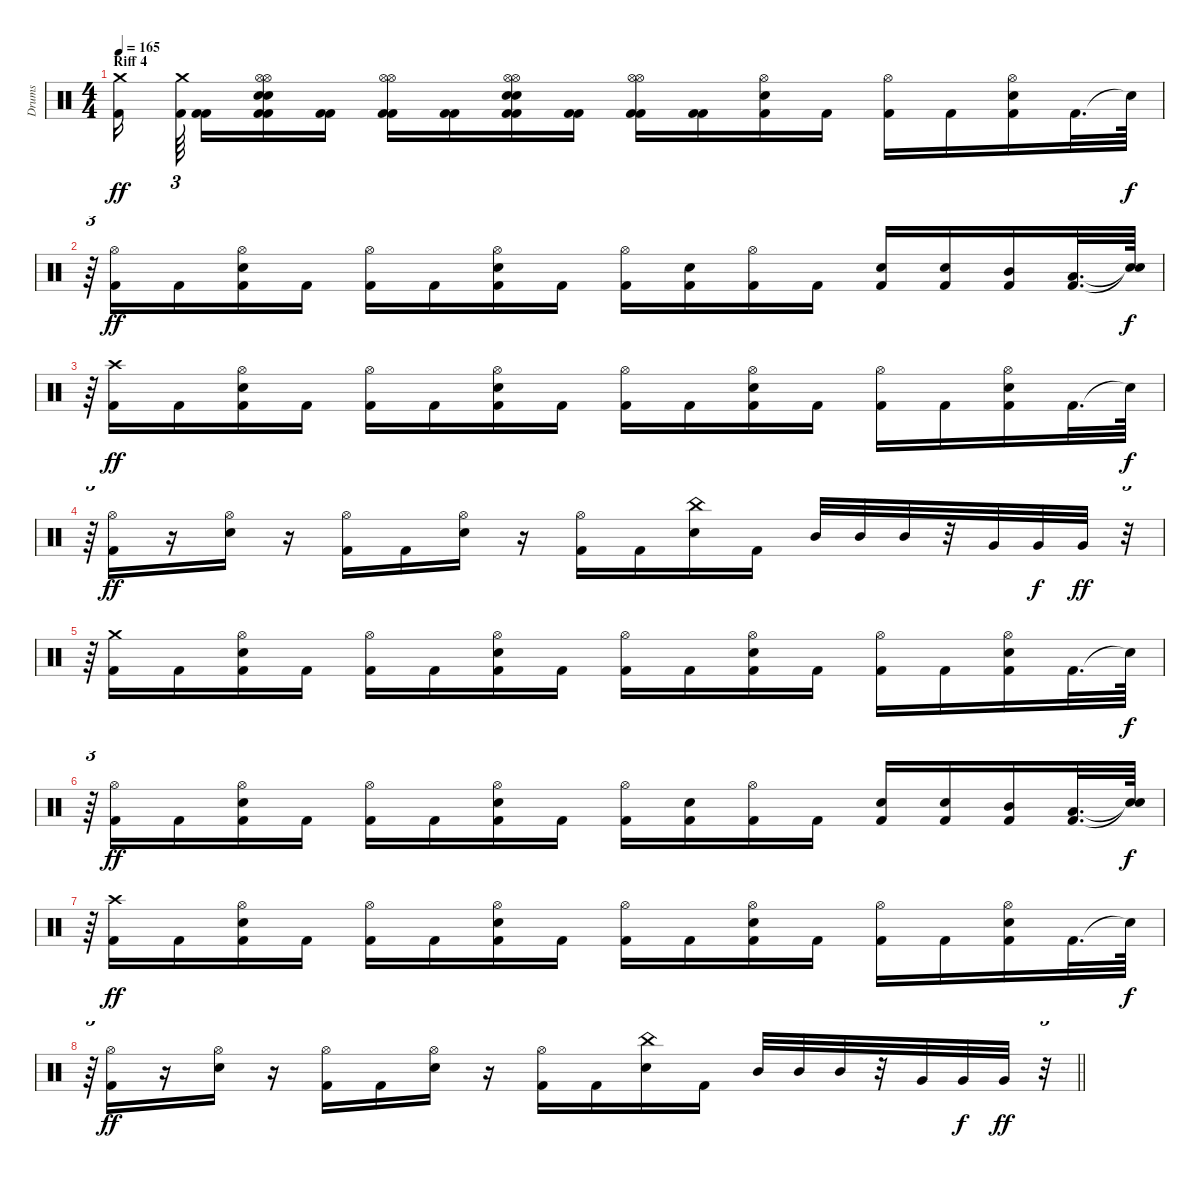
\track ("Drums" "Drums") {instrument percussion}
\staff {score}
\articulation defaults
\ts (4 4)
\section ("" "Riff 4")
\tempo 165
\clef neutral
\ks c
("Kick (hit) 2" "Crash medium (hit)").16{dy ff beam splitsecondary} ("Kick (hit) 2" "Crash medium (hit)").64{tu (3 2) beam splitsecondary} ("Kick (hit) 2" "Kick (hit) 2").16 ("Kick (hit) 2" "Kick (hit) 2" "Snare (hit) 2" "Snare (hit) 2" "Hi-Hat (open)" "Hi-Hat (open)").16 ("Kick (hit) 2" "Kick (hit) 2").16 ("Kick (hit) 2" "Kick (hit) 2" "Hi-Hat (open)" "Hi-Hat (open)").16 ("Kick (hit) 2" "Kick (hit) 2").16 ("Kick (hit) 2" "Kick (hit) 2" "Snare (hit) 2" "Snare (hit) 2" "Hi-Hat (open)" "Hi-Hat (open)").16 ("Kick (hit) 2" "Kick (hit) 2").16 ("Kick (hit) 2" "Kick (hit) 2" "Hi-Hat (open)" "Hi-Hat (open)").16 ("Kick (hit) 2" "Kick (hit) 2").16 ("Kick (hit) 2" "Snare (hit) 2" "Hi-Hat (open)").16 "Kick (hit) 2".16 ("Kick (hit) 2" "Hi-Hat (open)").16 "Kick (hit) 2".16 ("Kick (hit) 2" "Snare (hit) 2" "Hi-Hat (open)").16 "Kick (hit) 2".32{d} "Snare (hit)"{t}.64{dy f} |
r.64{tu (3 2)} ("Kick (hit) 2" "Hi-Hat (open)").16{dy ff} "Kick (hit) 2".16 ("Kick (hit) 2" "Snare (hit) 2" "Hi-Hat (open)").16 "Kick (hit) 2".16 ("Kick (hit) 2" "Hi-Hat (open)").16 "Kick (hit) 2".16 ("Kick (hit) 2" "Snare (hit) 2" "Hi-Hat (open)").16 "Kick (hit) 2".16 ("Kick (hit) 2" "Hi-Hat (open)").16 ("Kick (hit) 2" "Snare (hit) 2").16 ("Kick (hit) 2" "Hi-Hat (open)").16 "Kick (hit) 2".16 ("Kick (hit) 2" "Snare (hit) 2").16 ("Kick (hit) 2" "Snare (hit) 2").16 ("Kick (hit) 2" "Mid Tom (hit)").16 ("Kick (hit) 2" "Low Tom (hit)").32{d} ("Snare (hit)"{t} "Snare (hit)"{t}).64{dy f} |
r.64{tu (3 2)} ("Kick (hit) 2" "Crash high (hit)").16{dy ff} "Kick (hit) 2".16 ("Kick (hit) 2" "Snare (hit) 2" "Hi-Hat (open)").16 "Kick (hit) 2".16 ("Kick (hit) 2" "Hi-Hat (open)").16 "Kick (hit) 2".16 ("Kick (hit) 2" "Snare (hit) 2" "Hi-Hat (open)").16 "Kick (hit) 2".16 ("Kick (hit) 2" "Hi-Hat (open)").16 "Kick (hit) 2".16 ("Kick (hit) 2" "Snare (hit) 2" "Hi-Hat (open)").16 "Kick (hit) 2".16 ("Kick (hit) 2" "Hi-Hat (open)").16 "Kick (hit) 2".16 ("Kick (hit) 2" "Snare (hit) 2" "Hi-Hat (open)").16 "Kick (hit) 2".32{d} "Snare (hit)"{t}.64{dy f} |
r.64{tu (3 2)} ("Kick (hit) 2" "Hi-Hat (open)").16{dy ff} r.16 ("Snare (hit) 2" "Hi-Hat (open)").16 r.16 ("Kick (hit) 2" "Hi-Hat (open)").16 "Kick (hit) 2".16 ("Snare (hit) 2" "Hi-Hat (open)").16 r.16 ("Kick (hit) 2" "Hi-Hat (open)").16 "Kick (hit) 2".16 ("Snare (hit) 2" "China (hit)").16 "Kick (hit) 2".16 "Mid Tom (hit)".32 "Mid Tom (hit)".32 "Mid Tom (hit)".32 r.32 "Very Low Tom (hit)".32 "Very Low Tom (hit)".32{dy f} "Very Low Tom (hit)".32{dy ff} r.32{tu (3 2)} |
r.64{tu (3 2)} ("Kick (hit) 2" "Crash medium (hit)").16 "Kick (hit) 2".16 ("Kick (hit) 2" "Snare (hit) 2" "Hi-Hat (open)").16 "Kick (hit) 2".16 ("Kick (hit) 2" "Hi-Hat (open)").16 "Kick (hit) 2".16 ("Kick (hit) 2" "Snare (hit) 2" "Hi-Hat (open)").16 "Kick (hit) 2".16 ("Kick (hit) 2" "Hi-Hat (open)").16 "Kick (hit) 2".16 ("Kick (hit) 2" "Snare (hit) 2" "Hi-Hat (open)").16 "Kick (hit) 2".16 ("Kick (hit) 2" "Hi-Hat (open)").16 "Kick (hit) 2".16 ("Kick (hit) 2" "Snare (hit) 2" "Hi-Hat (open)").16 "Kick (hit) 2".32{d} "Snare (hit)"{t}.64{dy f} |
r.64{tu (3 2)} ("Kick (hit) 2" "Hi-Hat (open)").16{dy ff} "Kick (hit) 2".16 ("Kick (hit) 2" "Snare (hit) 2" "Hi-Hat (open)").16 "Kick (hit) 2".16 ("Kick (hit) 2" "Hi-Hat (open)").16 "Kick (hit) 2".16 ("Kick (hit) 2" "Snare (hit) 2" "Hi-Hat (open)").16 "Kick (hit) 2".16 ("Kick (hit) 2" "Hi-Hat (open)").16 ("Kick (hit) 2" "Snare (hit) 2").16 ("Kick (hit) 2" "Hi-Hat (open)").16 "Kick (hit) 2".16 ("Kick (hit) 2" "Snare (hit) 2").16 ("Kick (hit) 2" "Snare (hit) 2").16 ("Kick (hit) 2" "Mid Tom (hit)").16 ("Kick (hit) 2" "Low Tom (hit)").32{d} ("Snare (hit)"{t} "Snare (hit)"{t}).64{dy f} |
r.64{tu (3 2)} ("Kick (hit) 2" "Crash high (hit)").16{dy ff} "Kick (hit) 2".16 ("Kick (hit) 2" "Snare (hit) 2" "Hi-Hat (open)").16 "Kick (hit) 2".16 ("Kick (hit) 2" "Hi-Hat (open)").16 "Kick (hit) 2".16 ("Kick (hit) 2" "Snare (hit) 2" "Hi-Hat (open)").16 "Kick (hit) 2".16 ("Kick (hit) 2" "Hi-Hat (open)").16 "Kick (hit) 2".16 ("Kick (hit) 2" "Snare (hit) 2" "Hi-Hat (open)").16 "Kick (hit) 2".16 ("Kick (hit) 2" "Hi-Hat (open)").16 "Kick (hit) 2".16 ("Kick (hit) 2" "Snare (hit) 2" "Hi-Hat (open)").16 "Kick (hit) 2".32{d} "Snare (hit)"{t}.64{dy f} |
\barLineRight lightlight
r.64{tu (3 2)} ("Kick (hit) 2" "Hi-Hat (open)").16{dy ff} r.16 ("Snare (hit) 2" "Hi-Hat (open)").16 r.16 ("Kick (hit) 2" "Hi-Hat (open)").16 "Kick (hit) 2".16 ("Snare (hit) 2" "Hi-Hat (open)").16 r.16 ("Kick (hit) 2" "Hi-Hat (open)").16 "Kick (hit) 2".16 ("Snare (hit) 2" "China (hit)").16 "Kick (hit) 2".16 "Mid Tom (hit)".32 "Mid Tom (hit)".32 "Mid Tom (hit)".32 r.32 "Very Low Tom (hit)".32 "Very Low Tom (hit)".32{dy f} "Very Low Tom (hit)".32{dy ff} r.32{tu (3 2)}
